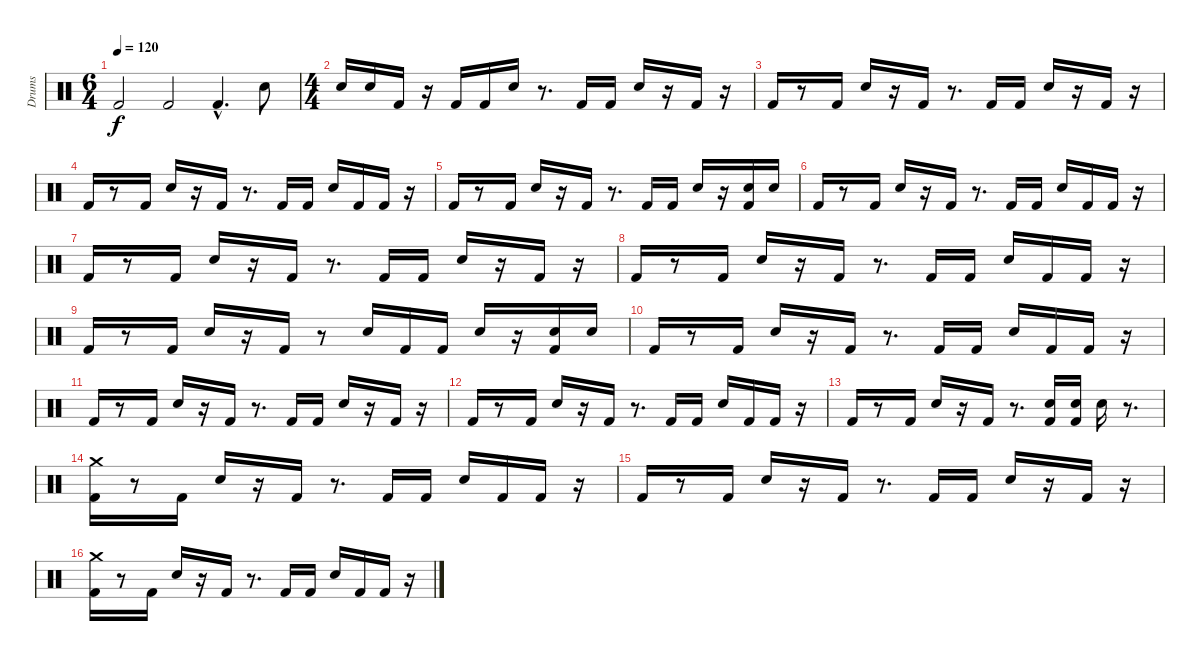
\track ("Drums" "Drums") {instrument percussion}
\staff {score}
\articulation defaults
\ts (6 4)
\tempo 120
\clef neutral
\ks c "Kick (hit) 2".2{dy f} "Kick (hit) 2".2 "Kick (hit) 2"{hac}.4{d} "Snare (hit) 2".8
|
\ts (4 4)
"Snare (hit) 2".16 "Snare (hit) 2".16 "Kick (hit) 2".16 r.16 "Kick (hit) 2".16 "Kick (hit) 2".16 "Snare (hit) 2".16 r.8{d} "Kick (hit) 2".16 "Kick (hit) 2".16 "Snare (hit) 2".16 r.16 "Kick (hit) 2".16 r.16 |
"Kick (hit) 2".16 r.8 "Kick (hit) 2".16 "Snare (hit) 2".16 r.16 "Kick (hit) 2".16 r.8{d} "Kick (hit) 2".16 "Kick (hit) 2".16 "Snare (hit) 2".16 r.16 "Kick (hit) 2".16 r.16 |
"Kick (hit) 2".16 r.8 "Kick (hit) 2".16 "Snare (hit) 2".16 r.16 "Kick (hit) 2".16 r.8{d} "Kick (hit) 2".16 "Kick (hit) 2".16 "Snare (hit) 2".16 "Kick (hit) 2".16 "Kick (hit) 2".16 r.16 |
"Kick (hit) 2".16 r.8 "Kick (hit) 2".16 "Snare (hit) 2".16 r.16 "Kick (hit) 2".16 r.8{d} "Kick (hit) 2".16 "Kick (hit) 2".16 "Snare (hit) 2".16 r.16 ("Kick (hit) 2" "Snare (hit) 2").16 "Snare (hit) 2".16 |
"Kick (hit) 2".16 r.8 "Kick (hit) 2".16 "Snare (hit) 2".16 r.16 "Kick (hit) 2".16 r.8{d} "Kick (hit) 2".16 "Kick (hit) 2".16 "Snare (hit) 2".16 "Kick (hit) 2".16 "Kick (hit) 2".16 r.16 |
"Kick (hit) 2".16 r.8 "Kick (hit) 2".16 "Snare (hit) 2".16 r.16 "Kick (hit) 2".16 r.8{d} "Kick (hit) 2".16 "Kick (hit) 2".16 "Snare (hit) 2".16 r.16 "Kick (hit) 2".16 r.16 |
"Kick (hit) 2".16 r.8 "Kick (hit) 2".16 "Snare (hit) 2".16 r.16 "Kick (hit) 2".16 r.8{d} "Kick (hit) 2".16 "Kick (hit) 2".16 "Snare (hit) 2".16 "Kick (hit) 2".16 "Kick (hit) 2".16 r.16 |
"Kick (hit) 2".16 r.8 "Kick (hit) 2".16 "Snare (hit) 2".16 r.16 "Kick (hit) 2".16 r.8 "Snare (hit) 2".16 "Kick (hit) 2".16 "Kick (hit) 2".16 "Snare (hit) 2".16 r.16 ("Kick (hit) 2" "Snare (hit) 2").16 "Snare (hit) 2".16 |
"Kick (hit) 2".16 r.8 "Kick (hit) 2".16 "Snare (hit) 2".16 r.16 "Kick (hit) 2".16 r.8{d} "Kick (hit) 2".16 "Kick (hit) 2".16 "Snare (hit) 2".16 "Kick (hit) 2".16 "Kick (hit) 2".16 r.16 |
"Kick (hit) 2".16 r.8 "Kick (hit) 2".16 "Snare (hit) 2".16 r.16 "Kick (hit) 2".16 r.8{d} "Kick (hit) 2".16 "Kick (hit) 2".16 "Snare (hit) 2".16 r.16 "Kick (hit) 2".16 r.16 |
"Kick (hit) 2".16 r.8 "Kick (hit) 2".16 "Snare (hit) 2".16 r.16 "Kick (hit) 2".16 r.8{d} "Kick (hit) 2".16 "Kick (hit) 2".16 "Snare (hit) 2".16 "Kick (hit) 2".16 "Kick (hit) 2".16 r.16 |
"Kick (hit) 2".16 r.8 "Kick (hit) 2".16 "Snare (hit) 2".16 r.16 "Kick (hit) 2".16 r.8{d} ("Kick (hit) 2" "Snare (hit) 2").16 ("Kick (hit) 2" "Snare (hit) 2").16 "Snare (hit) 2".16 r.8{d} |
("Kick (hit) 2" "Crash medium (hit)").16 r.8 "Kick (hit) 2".16 "Snare (hit) 2".16 r.16 "Kick (hit) 2".16 r.8{d} "Kick (hit) 2".16 "Kick (hit) 2".16 "Snare (hit) 2".16 "Kick (hit) 2".16 "Kick (hit) 2".16 r.16 |
"Kick (hit) 2".16 r.8 "Kick (hit) 2".16 "Snare (hit) 2".16 r.16 "Kick (hit) 2".16 r.8{d} "Kick (hit) 2".16 "Kick (hit) 2".16 "Snare (hit) 2".16 r.16 "Kick (hit) 2".16 r.16 |
("Kick (hit) 2" "Crash medium (hit)").16 r.8 "Kick (hit) 2".16 "Snare (hit) 2".16 r.16 "Kick (hit) 2".16 r.8{d} "Kick (hit) 2".16 "Kick (hit) 2".16 "Snare (hit) 2".16 "Kick (hit) 2".16 "Kick (hit) 2".16 r.16
